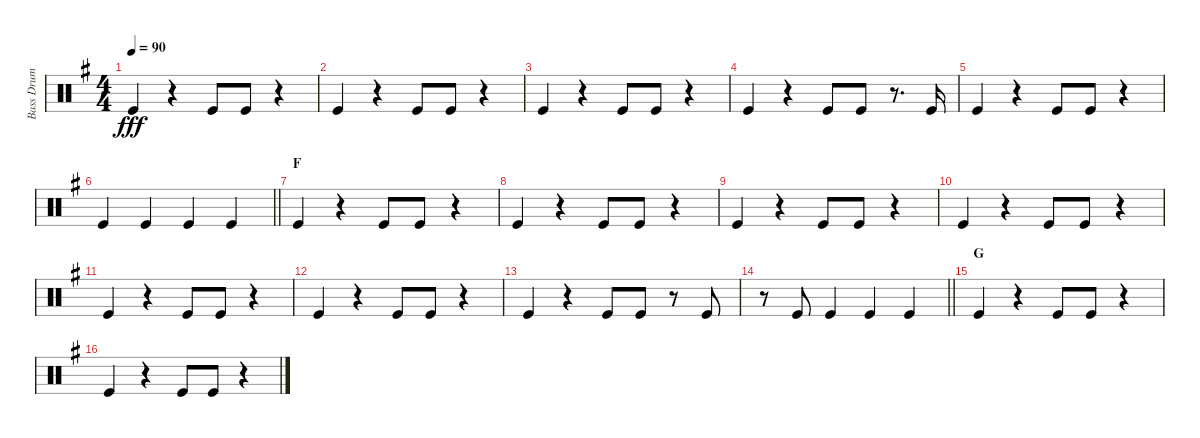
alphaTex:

\track ("Bass Drum" "Bass Drum") {instrument percussion}
\staff {score}
\articulation defaults
\ts (4 4)
\tempo 90
\clef neutral
\ks g "Kick (hit)".4{dy fff}
r.4 "Kick (hit)".8 "Kick (hit)".8 r.4 |
"Kick (hit)".4 r.4 "Kick (hit)".8 "Kick (hit)".8 r.4 |
"Kick (hit)".4 r.4 "Kick (hit)".8 "Kick (hit)".8 r.4 |
"Kick (hit)".4 r.4 "Kick (hit)".8 "Kick (hit)".8 r.8{d} "Kick (hit)".16 |
"Kick (hit)".4 r.4 "Kick (hit)".8 "Kick (hit)".8 r.4 |
\barLineRight lightlight "Kick (hit)".4 "Kick (hit)".4 "Kick (hit)".4 "Kick (hit)".4
|
\section ("" "F")
"Kick (hit)".4 r.4 "Kick (hit)".8 "Kick (hit)".8 r.4 |
"Kick (hit)".4 r.4 "Kick (hit)".8 "Kick (hit)".8 r.4 |
"Kick (hit)".4 r.4 "Kick (hit)".8 "Kick (hit)".8 r.4 |
"Kick (hit)".4 r.4 "Kick (hit)".8 "Kick (hit)".8 r.4 |
"Kick (hit)".4 r.4 "Kick (hit)".8 "Kick (hit)".8 r.4 |
"Kick (hit)".4 r.4 "Kick (hit)".8 "Kick (hit)".8 r.4 |
"Kick (hit)".4 r.4 "Kick (hit)".8 "Kick (hit)".8 r.8 "Kick (hit)".8 |
\barLineRight lightlight
r.8 "Kick (hit)".8 "Kick (hit)".4 "Kick (hit)".4 "Kick (hit)".4 |
\section ("" "G")
"Kick (hit)".4 r.4 "Kick (hit)".8 "Kick (hit)".8 r.4 |
"Kick (hit)".4 r.4 "Kick (hit)".8 "Kick (hit)".8 r.4
